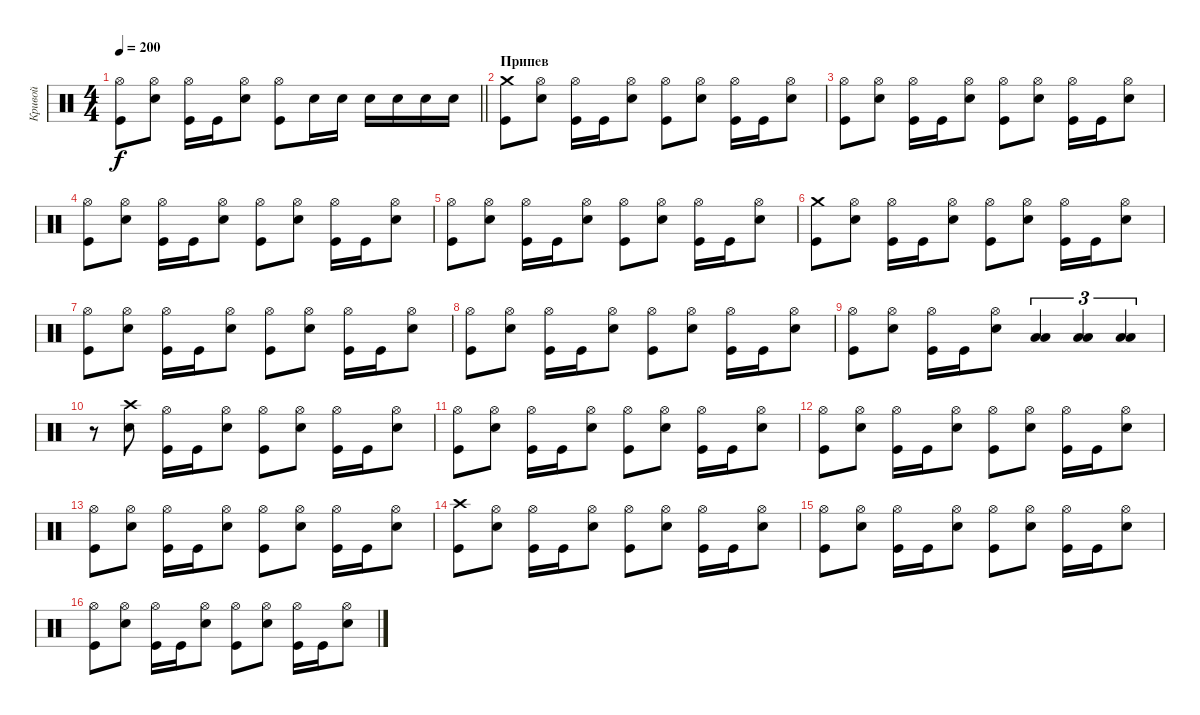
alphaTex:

\track ("Кривой" "Кривой") {instrument percussion}
\staff {score}
\articulation defaults
\ts (4 4)
\tempo 200
\clef neutral
\barLineRight lightlight
\ks c
("Hi-Hat (open)" "Kick (hit)").8{dy f} ("Hi-Hat (open)" "Electric Snare (hit)").8 ("Hi-Hat (open)" "Kick (hit)").16 "Kick (hit)".16 ("Hi-Hat (open)" "Electric Snare (hit)").8 ("Hi-Hat (open)" "Kick (hit)").8 "Electric Snare (hit)".16 "Electric Snare (hit)".16 "Electric Snare (hit)".16 "Electric Snare (hit)".16 "Electric Snare (hit)".16 "Electric Snare (hit)".16 |
\section ("" "Припев")
("Crash medium (hit)" "Kick (hit)").8 ("Hi-Hat (open)" "Electric Snare (hit)").8 ("Hi-Hat (open)" "Kick (hit)").16 "Kick (hit)".16 ("Hi-Hat (open)" "Electric Snare (hit)").8 ("Hi-Hat (open)" "Kick (hit)").8 ("Hi-Hat (open)" "Electric Snare (hit)").8 ("Hi-Hat (open)" "Kick (hit)").16 "Kick (hit)".16 ("Hi-Hat (open)" "Electric Snare (hit)").8 |
("Hi-Hat (open)" "Kick (hit)").8 ("Hi-Hat (open)" "Electric Snare (hit)").8 ("Hi-Hat (open)" "Kick (hit)").16 "Kick (hit)".16 ("Hi-Hat (open)" "Electric Snare (hit)").8 ("Hi-Hat (open)" "Kick (hit)").8 ("Hi-Hat (open)" "Electric Snare (hit)").8 ("Hi-Hat (open)" "Kick (hit)").16 "Kick (hit)".16 ("Hi-Hat (open)" "Electric Snare (hit)").8 |
("Hi-Hat (open)" "Kick (hit)").8 ("Hi-Hat (open)" "Electric Snare (hit)").8 ("Hi-Hat (open)" "Kick (hit)").16 "Kick (hit)".16 ("Hi-Hat (open)" "Electric Snare (hit)").8 ("Hi-Hat (open)" "Kick (hit)").8 ("Hi-Hat (open)" "Electric Snare (hit)").8 ("Hi-Hat (open)" "Kick (hit)").16 "Kick (hit)".16 ("Hi-Hat (open)" "Electric Snare (hit)").8 |
("Hi-Hat (open)" "Kick (hit)").8 ("Hi-Hat (open)" "Electric Snare (hit)").8 ("Hi-Hat (open)" "Kick (hit)").16 "Kick (hit)".16 ("Hi-Hat (open)" "Electric Snare (hit)").8 ("Hi-Hat (open)" "Kick (hit)").8 ("Hi-Hat (open)" "Electric Snare (hit)").8 ("Hi-Hat (open)" "Kick (hit)").16 "Kick (hit)".16 ("Hi-Hat (open)" "Electric Snare (hit)").8 |
("Crash medium (hit)" "Kick (hit)").8 ("Hi-Hat (open)" "Electric Snare (hit)").8 ("Hi-Hat (open)" "Kick (hit)").16 "Kick (hit)".16 ("Hi-Hat (open)" "Electric Snare (hit)").8 ("Hi-Hat (open)" "Kick (hit)").8 ("Hi-Hat (open)" "Electric Snare (hit)").8 ("Hi-Hat (open)" "Kick (hit)").16 "Kick (hit)".16 ("Hi-Hat (open)" "Electric Snare (hit)").8 |
("Hi-Hat (open)" "Kick (hit)").8 ("Hi-Hat (open)" "Electric Snare (hit)").8 ("Hi-Hat (open)" "Kick (hit)").16 "Kick (hit)".16 ("Hi-Hat (open)" "Electric Snare (hit)").8 ("Hi-Hat (open)" "Kick (hit)").8 ("Hi-Hat (open)" "Electric Snare (hit)").8 ("Hi-Hat (open)" "Kick (hit)").16 "Kick (hit)".16 ("Hi-Hat (open)" "Electric Snare (hit)").8 |
("Hi-Hat (open)" "Kick (hit)").8 ("Hi-Hat (open)" "Electric Snare (hit)").8 ("Hi-Hat (open)" "Kick (hit)").16 "Kick (hit)".16 ("Hi-Hat (open)" "Electric Snare (hit)").8 ("Hi-Hat (open)" "Kick (hit)").8 ("Hi-Hat (open)" "Electric Snare (hit)").8 ("Hi-Hat (open)" "Kick (hit)").16 "Kick (hit)".16 ("Hi-Hat (open)" "Electric Snare (hit)").8 |
("Hi-Hat (open)" "Kick (hit)").8 ("Hi-Hat (open)" "Electric Snare (hit)").8 ("Hi-Hat (open)" "Kick (hit)").16 "Kick (hit)".16 ("Hi-Hat (open)" "Electric Snare (hit)").8 ("Low Tom (hit)" "Low Floor Tom (hit)").4{tu (3 2)} ("Low Tom (hit)" "Low Floor Tom (hit)").4{tu (3 2)} ("Low Tom (hit)" "Low Floor Tom (hit)").4{tu (3 2)} |
r.8 ("Crash high (hit)" "Electric Snare (hit)").8 ("Hi-Hat (open)" "Kick (hit)").16 "Kick (hit)".16 ("Hi-Hat (open)" "Electric Snare (hit)").8 ("Hi-Hat (open)" "Kick (hit)").8 ("Hi-Hat (open)" "Electric Snare (hit)").8 ("Hi-Hat (open)" "Kick (hit)").16 "Kick (hit)".16 ("Hi-Hat (open)" "Electric Snare (hit)").8 |
("Hi-Hat (open)" "Kick (hit)").8 ("Hi-Hat (open)" "Electric Snare (hit)").8 ("Hi-Hat (open)" "Kick (hit)").16 "Kick (hit)".16 ("Hi-Hat (open)" "Electric Snare (hit)").8 ("Hi-Hat (open)" "Kick (hit)").8 ("Hi-Hat (open)" "Electric Snare (hit)").8 ("Hi-Hat (open)" "Kick (hit)").16 "Kick (hit)".16 ("Hi-Hat (open)" "Electric Snare (hit)").8 |
("Hi-Hat (open)" "Kick (hit)").8 ("Hi-Hat (open)" "Electric Snare (hit)").8 ("Hi-Hat (open)" "Kick (hit)").16 "Kick (hit)".16 ("Hi-Hat (open)" "Electric Snare (hit)").8 ("Hi-Hat (open)" "Kick (hit)").8 ("Hi-Hat (open)" "Electric Snare (hit)").8 ("Hi-Hat (open)" "Kick (hit)").16 "Kick (hit)".16 ("Hi-Hat (open)" "Electric Snare (hit)").8 |
("Hi-Hat (open)" "Kick (hit)").8 ("Hi-Hat (open)" "Electric Snare (hit)").8 ("Hi-Hat (open)" "Kick (hit)").16 "Kick (hit)".16 ("Hi-Hat (open)" "Electric Snare (hit)").8 ("Hi-Hat (open)" "Kick (hit)").8 ("Hi-Hat (open)" "Electric Snare (hit)").8 ("Hi-Hat (open)" "Kick (hit)").16 "Kick (hit)".16 ("Hi-Hat (open)" "Electric Snare (hit)").8 |
("Crash high (hit)" "Kick (hit)").8 ("Hi-Hat (open)" "Electric Snare (hit)").8 ("Hi-Hat (open)" "Kick (hit)").16 "Kick (hit)".16 ("Hi-Hat (open)" "Electric Snare (hit)").8 ("Hi-Hat (open)" "Kick (hit)").8 ("Hi-Hat (open)" "Electric Snare (hit)").8 ("Hi-Hat (open)" "Kick (hit)").16 "Kick (hit)".16 ("Hi-Hat (open)" "Electric Snare (hit)").8 |
("Hi-Hat (open)" "Kick (hit)").8 ("Hi-Hat (open)" "Electric Snare (hit)").8 ("Hi-Hat (open)" "Kick (hit)").16 "Kick (hit)".16 ("Hi-Hat (open)" "Electric Snare (hit)").8 ("Hi-Hat (open)" "Kick (hit)").8 ("Hi-Hat (open)" "Electric Snare (hit)").8 ("Hi-Hat (open)" "Kick (hit)").16 "Kick (hit)".16 ("Hi-Hat (open)" "Electric Snare (hit)").8 |
("Hi-Hat (open)" "Kick (hit)").8 ("Hi-Hat (open)" "Electric Snare (hit)").8 ("Hi-Hat (open)" "Kick (hit)").16 "Kick (hit)".16 ("Hi-Hat (open)" "Electric Snare (hit)").8 ("Hi-Hat (open)" "Kick (hit)").8 ("Hi-Hat (open)" "Electric Snare (hit)").8 ("Hi-Hat (open)" "Kick (hit)").16 "Kick (hit)".16 ("Hi-Hat (open)" "Electric Snare (hit)").8
